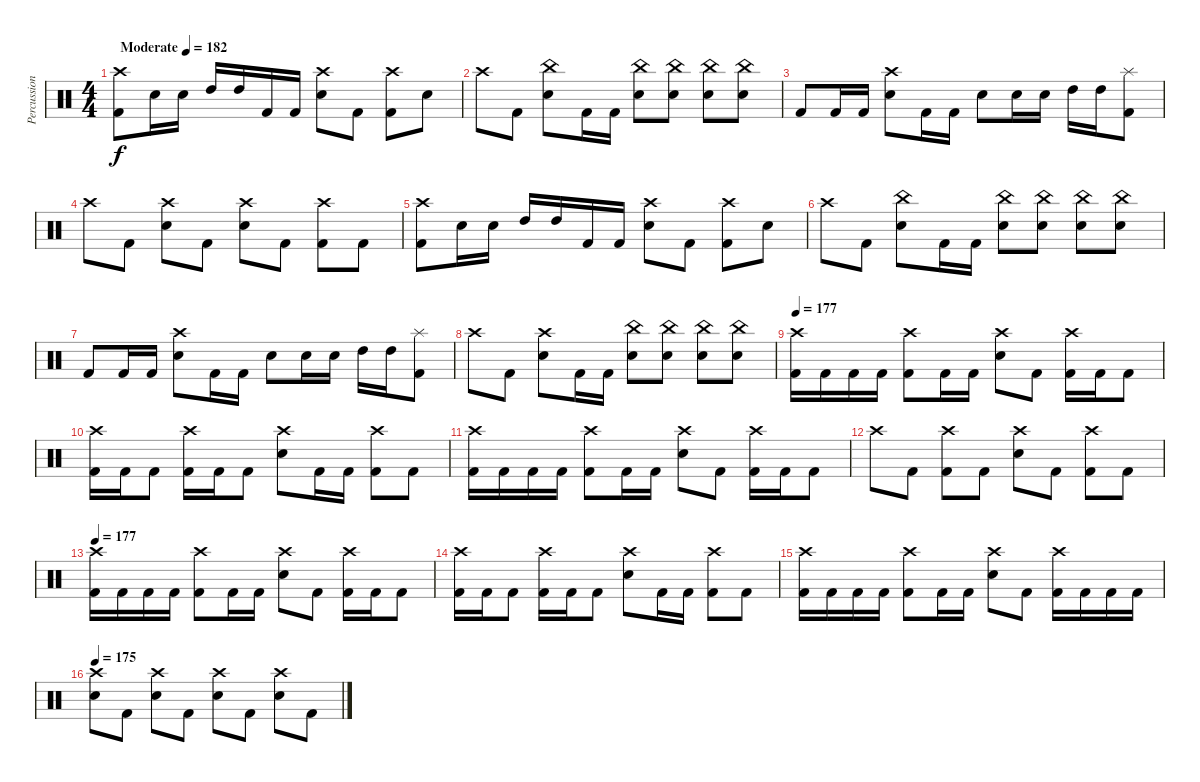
\track ("Percussion" "Percussion") {instrument percussion}
\staff {score}
\articulation defaults
\ts (4 4)
\tempo (182 "Moderate")
\clef neutral
\ks c
("Crash high (hit)" "Kick (hit) 2").8{dy f} "Snare (hit) 2".16 "Snare (hit) 2".16 "High Tom (hit)".16 "High Tom (hit)".16 "Kick (hit) 2".16 "Kick (hit) 2".16 ("Crash high (hit)" "Snare (hit) 2").8 "Kick (hit) 2".8 ("Crash high (hit)" "Kick (hit) 2").8 "Snare (hit) 2".8 |
"Crash high (hit)".8 "Kick (hit) 2".8 ("China (hit)" "Snare (hit) 2").8 "Kick (hit) 2".16 "Kick (hit) 2".16 ("China (hit)" "Snare (hit) 2").8 ("China (hit)" "Snare (hit) 2").8 ("China (hit)" "Snare (hit) 2").8 ("China (hit)" "Snare (hit) 2").8 |
"Kick (hit) 2".8 "Kick (hit) 2".16 "Kick (hit) 2".16 ("Crash high (hit)" "Snare (hit) 2").8 "Kick (hit) 2".16 "Kick (hit) 2".16 "Snare (hit) 2".8 "Snare (hit) 2".16 "Snare (hit) 2".16 "High Tom (hit)".16 "High Tom (hit)".16 ("Splash (hit)" "Kick (hit) 2").8 |
"Crash high (hit)".8 "Kick (hit) 2".8 ("Crash high (hit)" "Snare (hit) 2").8 "Kick (hit) 2".8 ("Crash high (hit)" "Snare (hit) 2").8 "Kick (hit) 2".8 ("Crash high (hit)" "Kick (hit) 2").8 "Kick (hit) 2".8 |
("Crash high (hit)" "Kick (hit) 2").8 "Snare (hit) 2".16 "Snare (hit) 2".16 "High Tom (hit)".16 "High Tom (hit)".16 "Kick (hit) 2".16 "Kick (hit) 2".16 ("Crash high (hit)" "Snare (hit) 2").8 "Kick (hit) 2".8 ("Crash high (hit)" "Kick (hit) 2").8 "Snare (hit) 2".8 |
"Crash high (hit)".8 "Kick (hit) 2".8 ("China (hit)" "Snare (hit) 2").8 "Kick (hit) 2".16 "Kick (hit) 2".16 ("China (hit)" "Snare (hit) 2").8 ("China (hit)" "Snare (hit) 2").8 ("China (hit)" "Snare (hit) 2").8 ("China (hit)" "Snare (hit) 2").8 |
"Kick (hit) 2".8 "Kick (hit) 2".16 "Kick (hit) 2".16 ("Crash high (hit)" "Snare (hit) 2").8 "Kick (hit) 2".16 "Kick (hit) 2".16 "Snare (hit) 2".8 "Snare (hit) 2".16 "Snare (hit) 2".16 "High Tom (hit)".16 "High Tom (hit)".16 ("Splash (hit)" "Kick (hit) 2").8 |
"Crash high (hit)".8 "Kick (hit) 2".8 ("Crash high (hit)" "Snare (hit) 2").8 "Kick (hit) 2".16 "Kick (hit) 2".16 ("China (hit)" "Snare (hit) 2").8 ("China (hit)" "Snare (hit) 2").8 ("China (hit)" "Snare (hit) 2").8 ("China (hit)" "Snare (hit) 2").8 |
\tempo 177
("Crash high (hit)" "Kick (hit) 2").16 "Kick (hit) 2".16 "Kick (hit) 2".16 "Kick (hit) 2".16 ("Crash high (hit)" "Kick (hit) 2").8 "Kick (hit) 2".16 "Kick (hit) 2".16 ("Crash high (hit)" "Snare (hit) 2").8 "Kick (hit) 2".8 ("Crash high (hit)" "Kick (hit) 2").16 "Kick (hit) 2".16 "Kick (hit) 2".8 |
("Crash high (hit)" "Kick (hit) 2").16 "Kick (hit) 2".16 "Kick (hit) 2".8 ("Crash high (hit)" "Kick (hit) 2").16 "Kick (hit) 2".16 "Kick (hit) 2".8 ("Crash high (hit)" "Snare (hit) 2").8 "Kick (hit) 2".16 "Kick (hit) 2".16 ("Crash high (hit)" "Kick (hit) 2").8 "Kick (hit) 2".8 |
("Crash high (hit)" "Kick (hit) 2").16 "Kick (hit) 2".16 "Kick (hit) 2".16 "Kick (hit) 2".16 ("Crash high (hit)" "Kick (hit) 2").8 "Kick (hit) 2".16 "Kick (hit) 2".16 ("Crash high (hit)" "Snare (hit) 2").8 "Kick (hit) 2".8 ("Crash high (hit)" "Kick (hit) 2").16 "Kick (hit) 2".16 "Kick (hit) 2".8 |
"Crash high (hit)".8 "Kick (hit) 2".8 ("Crash high (hit)" "Kick (hit) 2").8 "Kick (hit) 2".8 ("Crash high (hit)" "Snare (hit) 2").8 "Kick (hit) 2".8 ("Crash high (hit)" "Kick (hit) 2").8 "Kick (hit) 2".8 |
\tempo 177
("Crash high (hit)" "Kick (hit) 2").16 "Kick (hit) 2".16 "Kick (hit) 2".16 "Kick (hit) 2".16 ("Crash high (hit)" "Kick (hit) 2").8 "Kick (hit) 2".16 "Kick (hit) 2".16 ("Crash high (hit)" "Snare (hit) 2").8 "Kick (hit) 2".8 ("Crash high (hit)" "Kick (hit) 2").16 "Kick (hit) 2".16 "Kick (hit) 2".8 |
("Crash high (hit)" "Kick (hit) 2").16 "Kick (hit) 2".16 "Kick (hit) 2".8 ("Crash high (hit)" "Kick (hit) 2").16 "Kick (hit) 2".16 "Kick (hit) 2".8 ("Crash high (hit)" "Snare (hit) 2").8 "Kick (hit) 2".16 "Kick (hit) 2".16 ("Crash high (hit)" "Kick (hit) 2").8 "Kick (hit) 2".8 |
("Crash high (hit)" "Kick (hit) 2").16 "Kick (hit) 2".16 "Kick (hit) 2".16 "Kick (hit) 2".16 ("Crash high (hit)" "Kick (hit) 2").8 "Kick (hit) 2".16 "Kick (hit) 2".16 ("Crash high (hit)" "Snare (hit) 2").8 "Kick (hit) 2".8 ("Crash high (hit)" "Kick (hit) 2").16 "Kick (hit) 2".16 "Kick (hit) 2".16 "Kick (hit) 2".16 |
\tempo 175
("Crash high (hit)" "Snare (hit) 2").8 "Kick (hit) 2".8 ("Crash high (hit)" "Snare (hit) 2").8 "Kick (hit) 2".8 ("Crash high (hit)" "Snare (hit) 2").8 "Kick (hit) 2".8 ("Crash high (hit)" "Snare (hit) 2").8 "Kick (hit) 2".8
